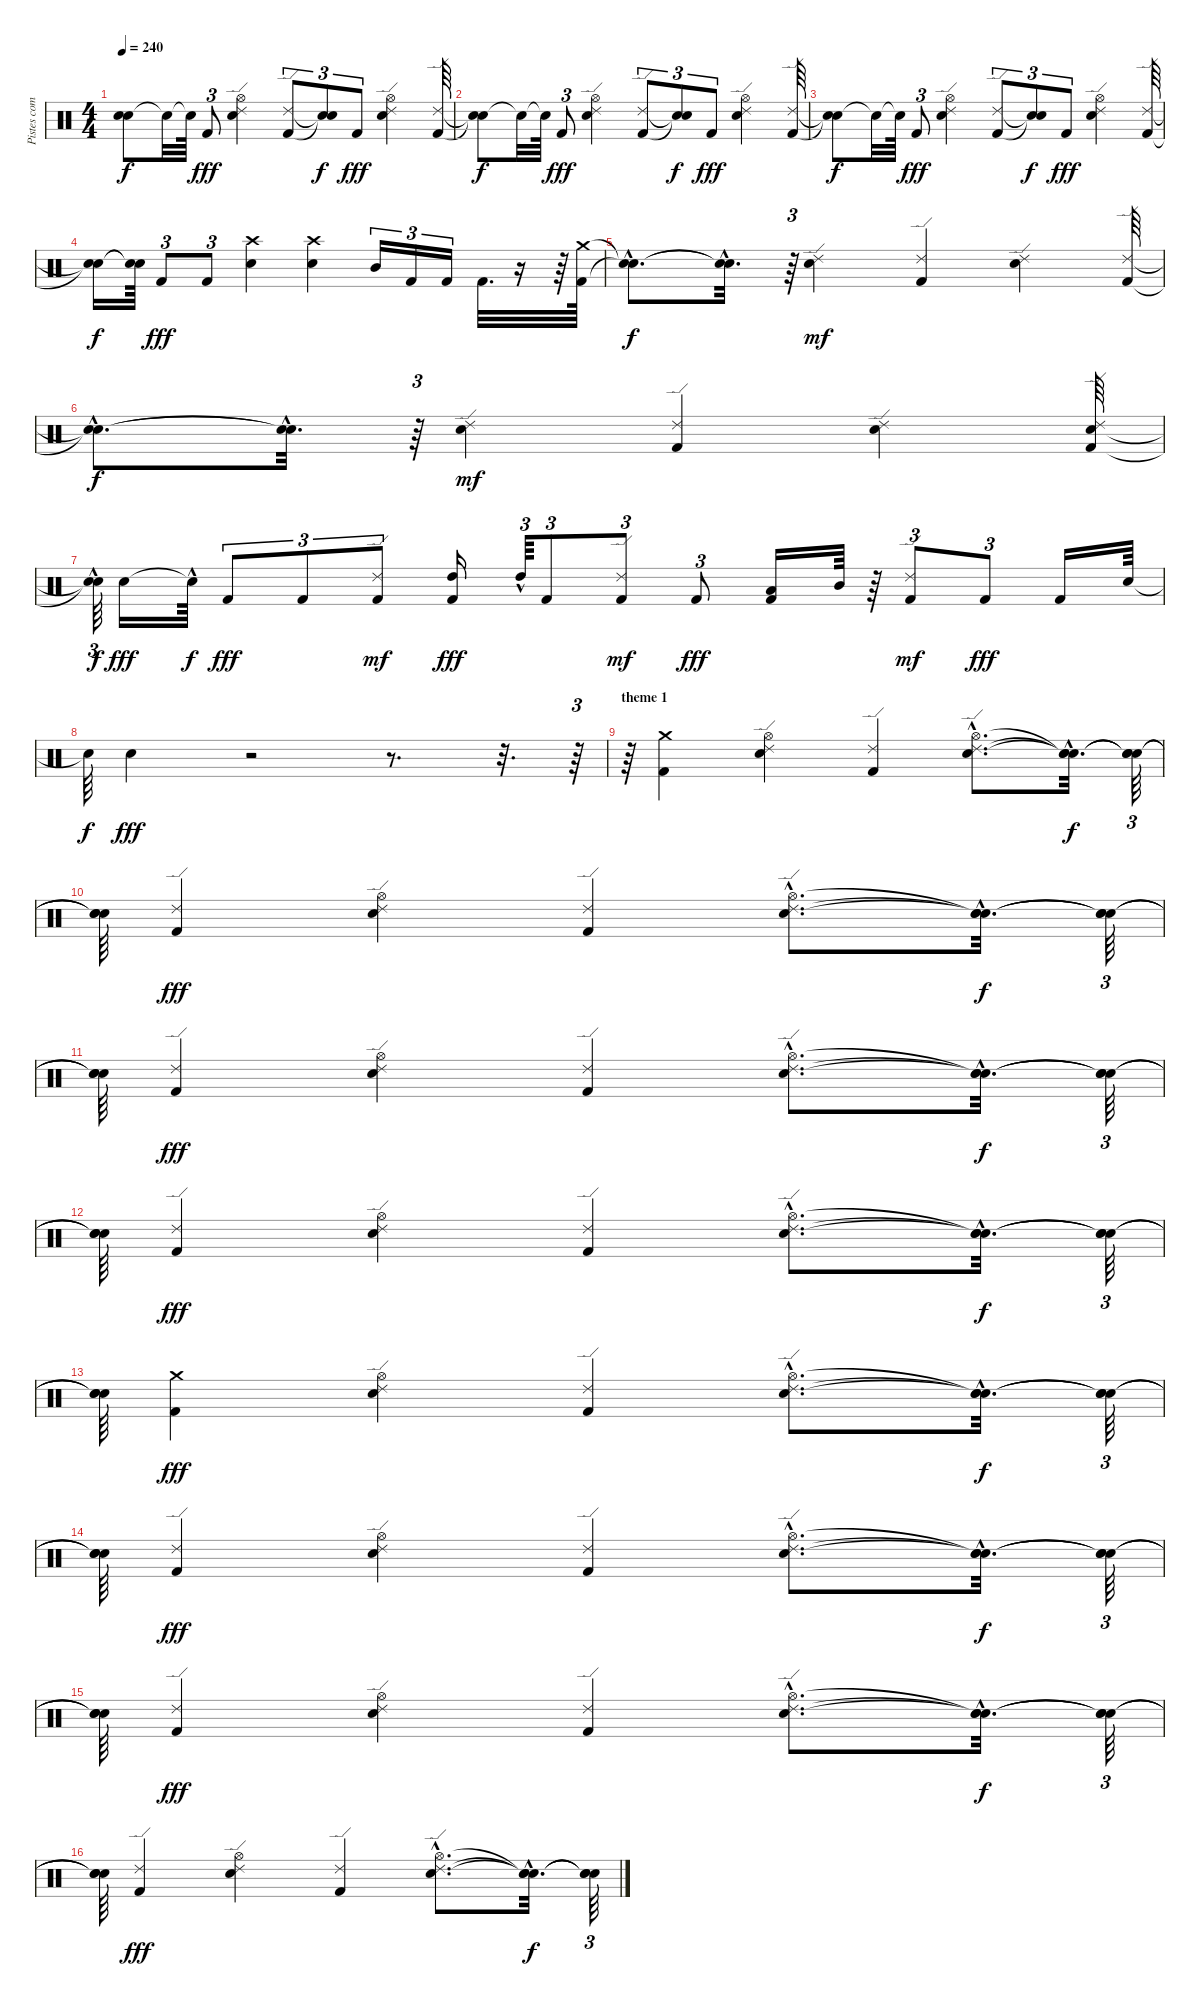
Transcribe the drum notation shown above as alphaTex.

\track ("Pistes combinées" "Pistes com") {instrument percussion}
\staff {score}
\articulation defaults
\ts (4 4)
\tempo 240
\clef neutral
\ks c
("Snare (hit)"{t} "Snare (hit)"{t}).8{dy f} "Snare (hit)"{t}.32 "Snare (hit)"{t}.64 "Kick (hit) 2".8{tu (3 2) dy fff} ("Electric Snare (hit)" "Ride (edge) 2" "Hi-Hat (open)").4 ("Kick (hit) 2" "Ride (edge) 2").8{tu (3 2)} ("Snare (hit)"{t} "Snare (hit)"{t}).8{tu (3 2) dy f} "Kick (hit) 2".8{tu (3 2) dy fff} ("Electric Snare (hit)" "Ride (edge) 2" "Hi-Hat (open)").4 ("Kick (hit) 2" "Ride (edge) 2").64 |
("Snare (hit)"{t} "Snare (hit)"{t}).8{dy f} "Snare (hit)"{t}.32 "Snare (hit)"{t}.64 "Kick (hit) 2".8{tu (3 2) dy fff} ("Electric Snare (hit)" "Ride (edge) 2" "Hi-Hat (open)").4 ("Kick (hit) 2" "Ride (edge) 2").8{tu (3 2)} ("Snare (hit)"{t} "Snare (hit)"{t}).8{tu (3 2) dy f} "Kick (hit) 2".8{tu (3 2) dy fff} ("Electric Snare (hit)" "Ride (edge) 2" "Hi-Hat (open)").4 ("Kick (hit) 2" "Ride (edge) 2").64 |
("Snare (hit)"{t} "Snare (hit)"{t}).8{dy f} "Snare (hit)"{t}.32 "Snare (hit)"{t}.64 "Kick (hit) 2".8{tu (3 2) dy fff} ("Electric Snare (hit)" "Ride (edge) 2" "Hi-Hat (open)").4 ("Kick (hit) 2" "Ride (edge) 2").8{tu (3 2)} ("Snare (hit)"{t} "Snare (hit)"{t}).8{tu (3 2) dy f} "Kick (hit) 2".8{tu (3 2) dy fff} ("Electric Snare (hit)" "Ride (edge) 2" "Hi-Hat (open)").4 ("Kick (hit) 2" "Ride (edge) 2").64 |
("Snare (hit)"{t} "Snare (hit)"{t}).16{dy f} ("Snare (hit)"{t} "Snare (hit)"{t}).64 "Kick (hit) 2".8{tu (3 2) dy fff} "Kick (hit) 2".8{tu (3 2)} ("Electric Snare (hit)" "Crash high (hit)").4 ("Electric Snare (hit)" "Crash high (hit)").4 "Mid Tom (hit)".16{tu (3 2)} "Kick (hit) 2".16{tu (3 2)} "Kick (hit) 2".16{tu (3 2)} "Kick (hit) 2".32{d} r.16 r.64 ("Kick (hit) 2" "Crash medium (hit)").64 |
("Snare (hit)"{hac t} "Snare (hit)"{hac t}).8{d dy f} ("Snare (hit)"{hac t} "Snare (hit)"{hac t}).32{d} r.64{tu (3 2)} ("Electric Snare (hit)" "Ride (edge) 2").4{dy mf} ("Kick (hit) 2" "Ride (edge) 2").4 ("Electric Snare (hit)" "Ride (edge) 2").4 ("Kick (hit) 2" "Ride (edge) 2").64 |
("Snare (hit)"{hac t} "Snare (hit)"{hac t}).8{d dy f} ("Snare (hit)"{hac t} "Snare (hit)"{hac t}).32{d} r.64{tu (3 2)} ("Electric Snare (hit)" "Ride (edge) 2").4{dy mf} ("Kick (hit) 2" "Ride (edge) 2").4 ("Electric Snare (hit)" "Ride (edge) 2").4 ("Kick (hit) 2" "Electric Snare (hit)" "Ride (edge) 2").64 |
("Snare (hit)"{t} "Snare (hit)"{hac t}).64{tu (3 2) dy f} "Electric Snare (hit)".16{dy fff} "Snare (hit)"{hac t}.64{dy f} "Kick (hit) 2".8{tu (3 2) dy fff} "Kick (hit) 2".8{tu (3 2)} ("Kick (hit) 2" "Ride (edge) 2").8{tu (3 2) dy mf} ("Kick (hit) 2" "High Tom (hit)").16{dy fff} "High Tom (hit)"{hac}.64{tu (3 2)} "Kick (hit) 2".8{tu (3 2)} ("Kick (hit) 2" "Ride (edge) 2").8{tu (3 2) dy mf} "Kick (hit) 2".8{tu (3 2) dy fff} ("Kick (hit) 2" "Low Tom (hit)").16 "Mid Tom (hit)".64 r.64 ("Kick (hit) 2" "Ride (edge) 2").8{tu (3 2) dy mf} "Kick (hit) 2".8{tu (3 2) dy fff} "Kick (hit) 2".16 "Electric Snare (hit)".64 |
"Snare (hit)"{t}.64{dy f} "Electric Snare (hit)".4{dy fff} r.2 r.8{d} r.32{d} r.64{tu (3 2)} |
\section ("" "theme 1")
r.64 ("Kick (hit) 2" "Crash medium (hit)").4 ("Electric Snare (hit)" "Ride (edge) 2" "Hi-Hat (open)").4 ("Kick (hit) 2" "Ride (edge) 2").4 ("Electric Snare (hit)"{hac} "Ride (edge) 2"{hac} "Hi-Hat (open)"{hac}).8{d} ("Snare (hit)"{hac t} "Snare (hit)"{hac t} "Snare (hit)"{hac t}).32{d dy f} ("Snare (hit)"{t} "Snare (hit)"{t} "Snare (hit)"{t}).64{tu (3 2)} |
("Snare (hit)"{t} "Snare (hit)"{t} "Snare (hit)"{t}).64 ("Kick (hit) 2" "Ride (edge) 2").4{dy fff} ("Electric Snare (hit)" "Ride (edge) 2" "Hi-Hat (open)").4 ("Kick (hit) 2" "Ride (edge) 2").4 ("Electric Snare (hit)"{hac} "Ride (edge) 2"{hac} "Hi-Hat (open)"{hac}).8{d} ("Snare (hit)"{hac t} "Snare (hit)"{hac t} "Snare (hit)"{hac t}).32{d dy f} ("Snare (hit)"{t} "Snare (hit)"{t} "Snare (hit)"{t}).64{tu (3 2)} |
("Snare (hit)"{t} "Snare (hit)"{t} "Snare (hit)"{t}).64 ("Kick (hit) 2" "Ride (edge) 2").4{dy fff} ("Electric Snare (hit)" "Ride (edge) 2" "Hi-Hat (open)").4 ("Kick (hit) 2" "Ride (edge) 2").4 ("Electric Snare (hit)"{hac} "Ride (edge) 2"{hac} "Hi-Hat (open)"{hac}).8{d} ("Snare (hit)"{hac t} "Snare (hit)"{hac t} "Snare (hit)"{hac t}).32{d dy f} ("Snare (hit)"{t} "Snare (hit)"{t} "Snare (hit)"{t}).64{tu (3 2)} |
("Snare (hit)"{t} "Snare (hit)"{t} "Snare (hit)"{t}).64 ("Kick (hit) 2" "Ride (edge) 2").4{dy fff} ("Electric Snare (hit)" "Ride (edge) 2" "Hi-Hat (open)").4 ("Kick (hit) 2" "Ride (edge) 2").4 ("Electric Snare (hit)"{hac} "Ride (edge) 2"{hac} "Hi-Hat (open)"{hac}).8{d} ("Snare (hit)"{hac t} "Snare (hit)"{hac t} "Snare (hit)"{hac t}).32{d dy f} ("Snare (hit)"{t} "Snare (hit)"{t} "Snare (hit)"{t}).64{tu (3 2)} |
("Snare (hit)"{t} "Snare (hit)"{t} "Snare (hit)"{t}).64 ("Kick (hit) 2" "Crash medium (hit)").4{dy fff} ("Electric Snare (hit)" "Ride (edge) 2" "Hi-Hat (open)").4 ("Kick (hit) 2" "Ride (edge) 2").4 ("Electric Snare (hit)"{hac} "Ride (edge) 2"{hac} "Hi-Hat (open)"{hac}).8{d} ("Snare (hit)"{hac t} "Snare (hit)"{hac t} "Snare (hit)"{hac t}).32{d dy f} ("Snare (hit)"{t} "Snare (hit)"{t} "Snare (hit)"{t}).64{tu (3 2)} |
("Snare (hit)"{t} "Snare (hit)"{t} "Snare (hit)"{t}).64 ("Kick (hit) 2" "Ride (edge) 2").4{dy fff} ("Electric Snare (hit)" "Ride (edge) 2" "Hi-Hat (open)").4 ("Kick (hit) 2" "Ride (edge) 2").4 ("Electric Snare (hit)"{hac} "Ride (edge) 2"{hac} "Hi-Hat (open)"{hac}).8{d} ("Snare (hit)"{hac t} "Snare (hit)"{hac t} "Snare (hit)"{hac t}).32{d dy f} ("Snare (hit)"{t} "Snare (hit)"{t} "Snare (hit)"{t}).64{tu (3 2)} |
("Snare (hit)"{t} "Snare (hit)"{t} "Snare (hit)"{t}).64 ("Kick (hit) 2" "Ride (edge) 2").4{dy fff} ("Electric Snare (hit)" "Ride (edge) 2" "Hi-Hat (open)").4 ("Kick (hit) 2" "Ride (edge) 2").4 ("Electric Snare (hit)"{hac} "Ride (edge) 2"{hac} "Hi-Hat (open)"{hac}).8{d} ("Snare (hit)"{hac t} "Snare (hit)"{hac t} "Snare (hit)"{hac t}).32{d dy f} ("Snare (hit)"{t} "Snare (hit)"{t} "Snare (hit)"{t}).64{tu (3 2)} |
("Snare (hit)"{t} "Snare (hit)"{t} "Snare (hit)"{t}).64 ("Kick (hit) 2" "Ride (edge) 2").4{dy fff} ("Electric Snare (hit)" "Ride (edge) 2" "Hi-Hat (open)").4 ("Kick (hit) 2" "Ride (edge) 2").4 ("Electric Snare (hit)"{hac} "Ride (edge) 2"{hac} "Hi-Hat (open)"{hac}).8{d} ("Snare (hit)"{hac t} "Snare (hit)"{hac t} "Snare (hit)"{hac t}).32{d dy f} ("Snare (hit)"{t} "Snare (hit)"{t} "Snare (hit)"{t}).64{tu (3 2)}
